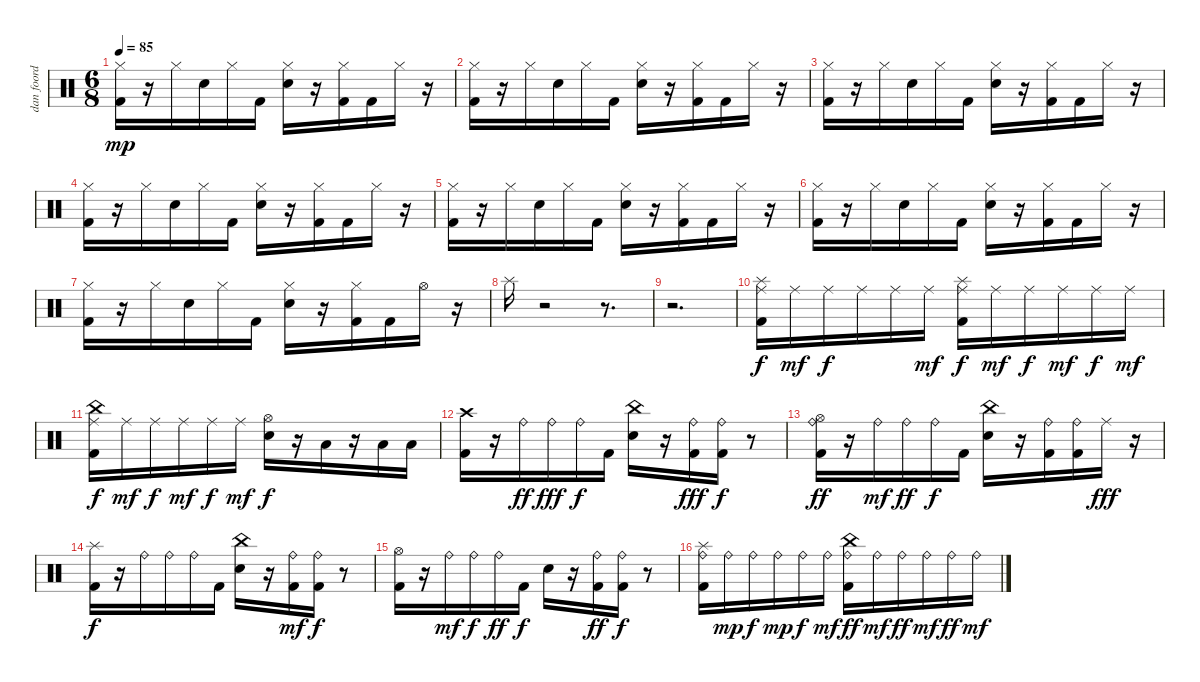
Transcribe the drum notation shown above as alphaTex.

\track ("dan foord" "dan foord") {instrument percussion}
\staff {score}
\articulation defaults
\ts (6 8)
\tempo 85
\clef neutral
\ks c
("Kick (hit) 2" "Hi-Hat (closed)").16{dy mp} r.16 "Hi-Hat (closed)".16 "Snare (hit) 2".16 "Hi-Hat (closed)".16 "Kick (hit) 2".16 ("Snare (hit) 2" "Hi-Hat (closed)").16 r.16 ("Kick (hit) 2" "Hi-Hat (closed)").16 "Kick (hit) 2".16 "Hi-Hat (closed)".16 r.16 |
("Kick (hit) 2" "Hi-Hat (closed)").16 r.16 "Hi-Hat (closed)".16 "Snare (hit) 2".16 "Hi-Hat (closed)".16 "Kick (hit) 2".16 ("Snare (hit) 2" "Hi-Hat (closed)").16 r.16 ("Kick (hit) 2" "Hi-Hat (closed)").16 "Kick (hit) 2".16 "Hi-Hat (closed)".16 r.16 |
("Kick (hit) 2" "Hi-Hat (closed)").16 r.16 "Hi-Hat (closed)".16 "Snare (hit) 2".16 "Hi-Hat (closed)".16 "Kick (hit) 2".16 ("Snare (hit) 2" "Hi-Hat (closed)").16 r.16 ("Kick (hit) 2" "Hi-Hat (closed)").16 "Kick (hit) 2".16 "Hi-Hat (closed)".16 r.16 |
("Kick (hit) 2" "Hi-Hat (closed)").16 r.16 "Hi-Hat (closed)".16 "Snare (hit) 2".16 "Hi-Hat (closed)".16 "Kick (hit) 2".16 ("Snare (hit) 2" "Hi-Hat (closed)").16 r.16 ("Kick (hit) 2" "Hi-Hat (closed)").16 "Kick (hit) 2".16 "Hi-Hat (closed)".16 r.16 |
("Kick (hit) 2" "Hi-Hat (closed)").16 r.16 "Hi-Hat (closed)".16 "Snare (hit) 2".16 "Hi-Hat (closed)".16 "Kick (hit) 2".16 ("Snare (hit) 2" "Hi-Hat (closed)").16 r.16 ("Kick (hit) 2" "Hi-Hat (closed)").16 "Kick (hit) 2".16 "Hi-Hat (closed)".16 r.16 |
("Kick (hit) 2" "Hi-Hat (closed)").16 r.16 "Hi-Hat (closed)".16 "Snare (hit) 2".16 "Hi-Hat (closed)".16 "Kick (hit) 2".16 ("Snare (hit) 2" "Hi-Hat (closed)").16 r.16 ("Kick (hit) 2" "Hi-Hat (closed)").16 "Kick (hit) 2".16 "Hi-Hat (closed)".16 r.16 |
("Kick (hit) 2" "Hi-Hat (closed)").16 r.16 "Hi-Hat (closed)".16 "Snare (hit) 2".16 "Hi-Hat (closed)".16 "Kick (hit) 2".16 ("Snare (hit) 2" "Hi-Hat (closed)").16 r.16 ("Kick (hit) 2" "Hi-Hat (closed)").16 "Kick (hit) 2".16 "Hi-Hat (open)".16 r.16 |
"Splash (hit)".16 r.2 r.8{d} |
r.2{d} |
("Kick (hit) 2" "Ride (middle)" "Splash (hit)").16{dy f} "Ride (middle)".16{dy mf} "Ride (middle)".16{dy f} "Ride (middle)".16 "Ride (middle)".16 "Ride (middle)".16{dy mf} ("Kick (hit) 2" "Ride (middle)" "Splash (hit)").16{dy f} "Ride (middle)".16{dy mf} "Ride (middle)".16{dy f} "Ride (middle)".16{dy mf} "Ride (middle)".16{dy f} "Ride (middle)".16{dy mf} |
("Kick (hit) 2" "Ride (middle)" "China (hit)").16{dy f} "Ride (middle)".16{dy mf} "Ride (middle)".16{dy f} "Ride (middle)".16{dy mf} "Ride (middle)".16{dy f} "Ride (middle)".16{dy mf} ("Snare (hit) 2" "Hi-Hat (open)").16{dy f} r.16 "Low Floor Tom (hit)".16 r.16 "Low Floor Tom (hit)".16 "Low Floor Tom (hit)".16 |
("Kick (hit) 2" "Crash high (hit)").16 r.16 "Ride (bell)".16{dy ff} "Ride (bell)".16{dy fff} "Ride (bell)".16{dy f} "Kick (hit) 2".16 ("Snare (hit) 2" "China (hit)").16 r.16 ("Kick (hit) 2" "Ride (bell)").16{dy fff} ("Kick (hit) 2" "Ride (bell)").16{dy f} r.8 |
("Kick (hit) 2" "Hi-Hat (open)" "Ride (bell)").16{dy ff} r.16 "Ride (bell)".16{dy mf} "Ride (bell)".16{dy ff} "Ride (bell)".16{dy f} "Kick (hit) 2".16 ("Snare (hit) 2" "China (hit)").16 r.16 ("Kick (hit) 2" "Ride (bell)").16 ("Kick (hit) 2" "Ride (bell)").16 "Ride (middle)".16{dy fff} r.16 |
("Kick (hit) 2" "Splash (hit)").16{dy f} r.16 "Ride (bell)".16 "Ride (bell)".16 "Ride (bell)".16 "Kick (hit) 2".16 ("Snare (hit) 2" "China (hit)").16 r.16 ("Kick (hit) 2" "Ride (bell)").16{dy mf} ("Kick (hit) 2" "Ride (bell)").16{dy f} r.8 |
("Kick (hit) 2" "Hi-Hat (open)").16 r.16 "Ride (bell)".16{dy mf} "Ride (bell)".16{dy f} "Ride (bell)".16{dy ff} "Kick (hit) 2".16{dy f} "Snare (hit) 2".16 r.16 ("Kick (hit) 2" "Ride (bell)").16{dy ff} ("Kick (hit) 2" "Ride (bell)").16{dy f} r.8 |
("Kick (hit) 2" "Ride (bell)" "Splash (hit)").16 "Ride (bell)".16{dy mp} "Ride (bell)".16{dy f} "Ride (bell)".16{dy mp} "Ride (bell)".16{dy f} "Ride (bell)".16{dy mf} ("Kick (hit) 2" "China (hit)" "Ride (bell)").16{dy ff} "Ride (bell)".16{dy mf} "Ride (bell)".16{dy ff} "Ride (bell)".16{dy mf} "Ride (bell)".16{dy ff} "Ride (bell)".16{dy mf}
